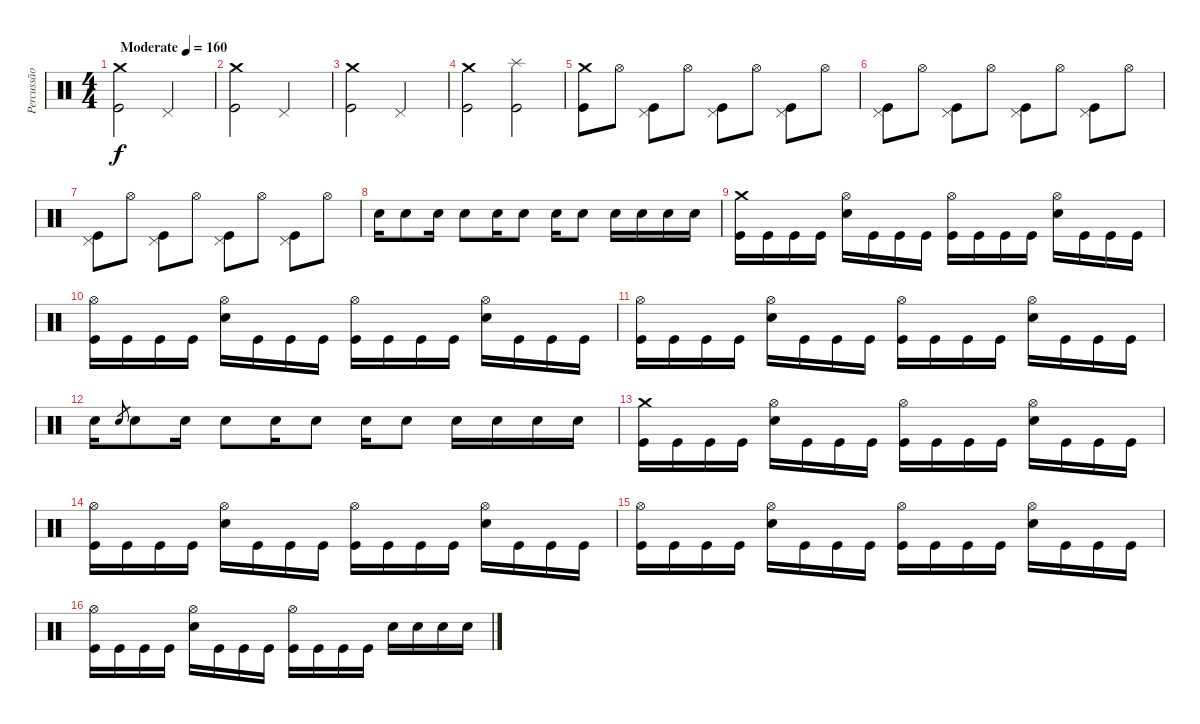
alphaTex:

\track ("Percussão" "Percussão") {instrument percussion}
\staff {score}
\articulation defaults
\ts (4 4)
\tempo (160 "Moderate")
\clef neutral
\ks c
("Crash medium (hit)" "Kick (hit)").2{dy f} "Pedal Hi-Hat (hit)".2 |
("Crash medium (hit)" "Kick (hit)").2 "Pedal Hi-Hat (hit)".2 |
("Crash medium (hit)" "Kick (hit)").2 "Pedal Hi-Hat (hit)".2 |
("Crash medium (hit)" "Kick (hit)").2 ("Splash (hit)" "Kick (hit)").2 |
("Crash medium (hit)" "Kick (hit)").8 "Hi-Hat (open)".8 ("Pedal Hi-Hat (hit)" "Kick (hit)").8 "Hi-Hat (open)".8 ("Pedal Hi-Hat (hit)" "Kick (hit)").8 "Hi-Hat (open)".8 ("Pedal Hi-Hat (hit)" "Kick (hit)").8 "Hi-Hat (open)".8 |
("Pedal Hi-Hat (hit)" "Kick (hit)").8 "Hi-Hat (open)".8 ("Pedal Hi-Hat (hit)" "Kick (hit)").8 "Hi-Hat (open)".8 ("Pedal Hi-Hat (hit)" "Kick (hit)").8 "Hi-Hat (open)".8 ("Pedal Hi-Hat (hit)" "Kick (hit)").8 "Hi-Hat (open)".8 |
("Pedal Hi-Hat (hit)" "Kick (hit)").8 "Hi-Hat (open)".8 ("Pedal Hi-Hat (hit)" "Kick (hit)").8 "Hi-Hat (open)".8 ("Pedal Hi-Hat (hit)" "Kick (hit)").8 "Hi-Hat (open)".8 ("Pedal Hi-Hat (hit)" "Kick (hit)").8 "Hi-Hat (open)".8 |
"Electric Snare (hit)".16 "Electric Snare (hit)".8 "Electric Snare (hit)".16 "Electric Snare (hit)".8 "Electric Snare (hit)".16 "Electric Snare (hit)".8 "Electric Snare (hit)".16 "Electric Snare (hit)".8 "Electric Snare (hit)".16 "Electric Snare (hit)".16 "Electric Snare (hit)".16 "Electric Snare (hit)".16 |
("Crash medium (hit)" "Kick (hit)").16 "Kick (hit)".16 "Kick (hit)".16 "Kick (hit)".16 ("Hi-Hat (open)" "Electric Snare (hit)").16 "Kick (hit)".16 "Kick (hit)".16 "Kick (hit)".16 ("Hi-Hat (open)" "Kick (hit)").16 "Kick (hit)".16 "Kick (hit)".16 "Kick (hit)".16 ("Hi-Hat (open)" "Electric Snare (hit)").16 "Kick (hit)".16 "Kick (hit)".16 "Kick (hit)".16 |
("Hi-Hat (open)" "Kick (hit)").16 "Kick (hit)".16 "Kick (hit)".16 "Kick (hit)".16 ("Hi-Hat (open)" "Electric Snare (hit)").16 "Kick (hit)".16 "Kick (hit)".16 "Kick (hit)".16 ("Hi-Hat (open)" "Kick (hit)").16 "Kick (hit)".16 "Kick (hit)".16 "Kick (hit)".16 ("Hi-Hat (open)" "Electric Snare (hit)").16 "Kick (hit)".16 "Kick (hit)".16 "Kick (hit)".16 |
("Hi-Hat (open)" "Kick (hit)").16 "Kick (hit)".16 "Kick (hit)".16 "Kick (hit)".16 ("Hi-Hat (open)" "Electric Snare (hit)").16 "Kick (hit)".16 "Kick (hit)".16 "Kick (hit)".16 ("Hi-Hat (open)" "Kick (hit)").16 "Kick (hit)".16 "Kick (hit)".16 "Kick (hit)".16 ("Hi-Hat (open)" "Electric Snare (hit)").16 "Kick (hit)".16 "Kick (hit)".16 "Kick (hit)".16 |
"Electric Snare (hit)".16 "Electric Snare (hit)".8{gr} "Electric Snare (hit)".8 "Electric Snare (hit)".16 "Electric Snare (hit)".8 "Electric Snare (hit)".16 "Electric Snare (hit)".8 "Electric Snare (hit)".16 "Electric Snare (hit)".8 "Electric Snare (hit)".16 "Electric Snare (hit)".16 "Electric Snare (hit)".16 "Electric Snare (hit)".16 |
("Crash medium (hit)" "Kick (hit)").16 "Kick (hit)".16 "Kick (hit)".16 "Kick (hit)".16 ("Hi-Hat (open)" "Electric Snare (hit)").16 "Kick (hit)".16 "Kick (hit)".16 "Kick (hit)".16 ("Hi-Hat (open)" "Kick (hit)").16 "Kick (hit)".16 "Kick (hit)".16 "Kick (hit)".16 ("Hi-Hat (open)" "Electric Snare (hit)").16 "Kick (hit)".16 "Kick (hit)".16 "Kick (hit)".16 |
("Hi-Hat (open)" "Kick (hit)").16 "Kick (hit)".16 "Kick (hit)".16 "Kick (hit)".16 ("Hi-Hat (open)" "Electric Snare (hit)").16 "Kick (hit)".16 "Kick (hit)".16 "Kick (hit)".16 ("Hi-Hat (open)" "Kick (hit)").16 "Kick (hit)".16 "Kick (hit)".16 "Kick (hit)".16 ("Hi-Hat (open)" "Electric Snare (hit)").16 "Kick (hit)".16 "Kick (hit)".16 "Kick (hit)".16 |
("Hi-Hat (open)" "Kick (hit)").16 "Kick (hit)".16 "Kick (hit)".16 "Kick (hit)".16 ("Hi-Hat (open)" "Electric Snare (hit)").16 "Kick (hit)".16 "Kick (hit)".16 "Kick (hit)".16 ("Hi-Hat (open)" "Kick (hit)").16 "Kick (hit)".16 "Kick (hit)".16 "Kick (hit)".16 ("Hi-Hat (open)" "Electric Snare (hit)").16 "Kick (hit)".16 "Kick (hit)".16 "Kick (hit)".16 |
("Hi-Hat (open)" "Kick (hit)").16 "Kick (hit)".16 "Kick (hit)".16 "Kick (hit)".16 ("Hi-Hat (open)" "Electric Snare (hit)").16 "Kick (hit)".16 "Kick (hit)".16 "Kick (hit)".16 ("Hi-Hat (open)" "Kick (hit)").16 "Kick (hit)".16 "Kick (hit)".16 "Kick (hit)".16 "Electric Snare (hit)".16 "Electric Snare (hit)".16 "Electric Snare (hit)".16 "Electric Snare (hit)".16
